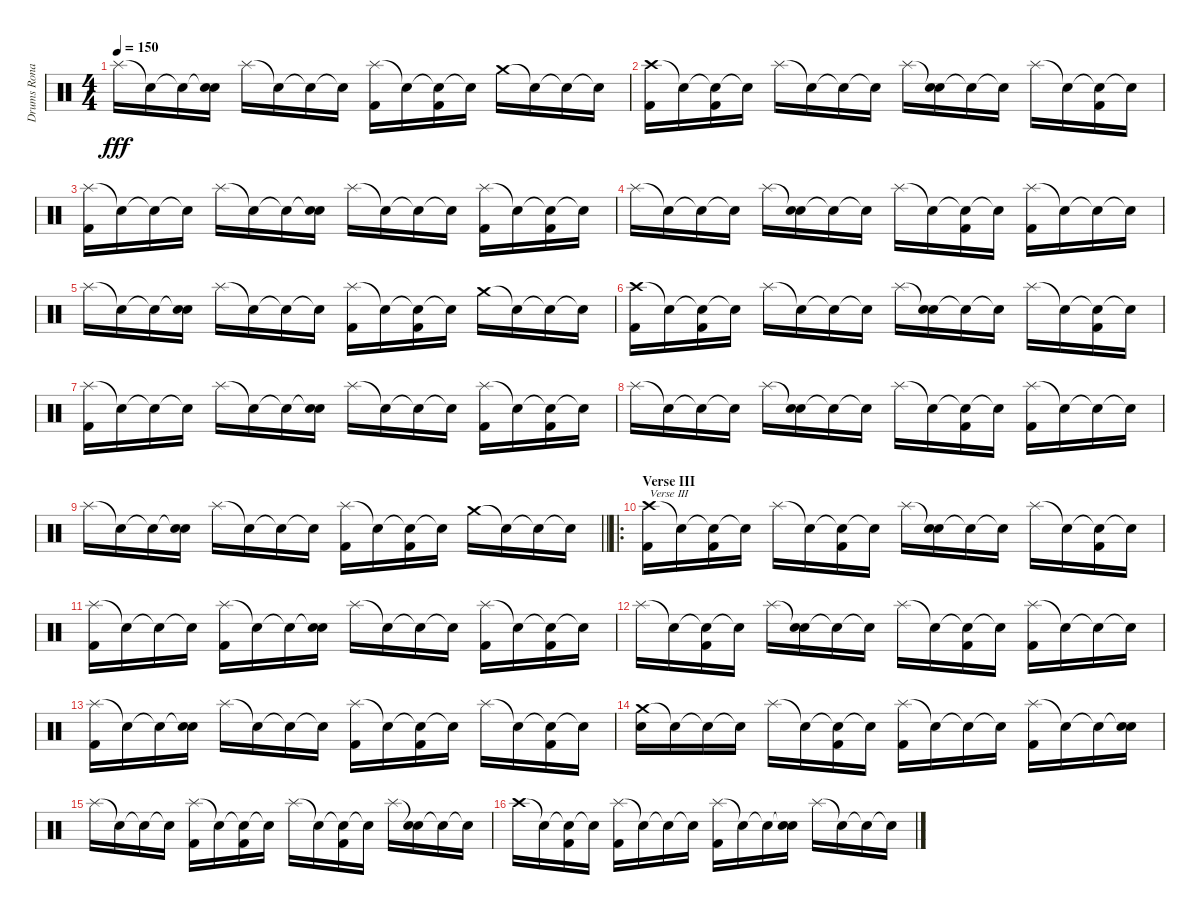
\track ("Drums Ronald Reagen FTW" "Drums Rona") {instrument percussion}
\staff {score}
\articulation defaults
\ts (4 4)
\tempo 150
\clef neutral
\ks c "Splash (hit)".16{dy fff} "Snare (hit)"{t}.16 "Snare (hit)"{t}.16
("Snare (hit)"{t} "Electric Snare (hit)").16 "Splash (hit)".16 "Snare (hit)"{t}.16 "Snare (hit)"{t}.16 "Snare (hit)"{t}.16 ("Splash (hit)" "Kick (hit) 2").16 "Snare (hit)"{t}.16 ("Snare (hit)"{t} "Kick (hit) 2").16 "Snare (hit)"{t}.16 "Crash medium (hit)".16 "Snare (hit)"{t}.16 "Snare (hit)"{t}.16 "Snare (hit)"{t}.16 |
("Crash high (hit)" "Kick (hit) 2").16 "Snare (hit)"{t}.16 ("Snare (hit)"{t} "Kick (hit) 2").16 "Snare (hit)"{t}.16 "Splash (hit)".16 "Snare (hit)"{t}.16 "Snare (hit)"{t}.16 "Snare (hit)"{t}.16 "Splash (hit)".16 ("Snare (hit)"{t} "Electric Snare (hit)").16 "Snare (hit)"{t}.16 "Snare (hit)"{t}.16 "Splash (hit)".16 "Snare (hit)"{t}.16 ("Snare (hit)"{t} "Kick (hit) 2").16 "Snare (hit)"{t}.16 |
("Splash (hit)" "Kick (hit) 2").16 "Snare (hit)"{t}.16 "Snare (hit)"{t}.16 "Snare (hit)"{t}.16 "Splash (hit)".16 "Snare (hit)"{t}.16 "Snare (hit)"{t}.16 ("Snare (hit)"{t} "Electric Snare (hit)").16 "Splash (hit)".16 "Snare (hit)"{t}.16 "Snare (hit)"{t}.16 "Snare (hit)"{t}.16 ("Splash (hit)" "Kick (hit) 2").16 "Snare (hit)"{t}.16 ("Snare (hit)"{t} "Kick (hit) 2").16 "Snare (hit)"{t}.16 |
"Splash (hit)".16 "Snare (hit)"{t}.16 "Snare (hit)"{t}.16 "Snare (hit)"{t}.16 "Splash (hit)".16 ("Snare (hit)"{t} "Electric Snare (hit)").16 "Snare (hit)"{t}.16 "Snare (hit)"{t}.16 "Splash (hit)".16 "Snare (hit)"{t}.16 ("Snare (hit)"{t} "Kick (hit) 2").16 "Snare (hit)"{t}.16 ("Splash (hit)" "Kick (hit) 2").16 "Snare (hit)"{t}.16 "Snare (hit)"{t}.16 "Snare (hit)"{t}.16 |
"Splash (hit)".16 "Snare (hit)"{t}.16 "Snare (hit)"{t}.16 ("Snare (hit)"{t} "Electric Snare (hit)").16 "Splash (hit)".16 "Snare (hit)"{t}.16 "Snare (hit)"{t}.16 "Snare (hit)"{t}.16 ("Splash (hit)" "Kick (hit) 2").16 "Snare (hit)"{t}.16 ("Snare (hit)"{t} "Kick (hit) 2").16 "Snare (hit)"{t}.16 "Crash medium (hit)".16 "Snare (hit)"{t}.16 "Snare (hit)"{t}.16 "Snare (hit)"{t}.16 |
("Crash high (hit)" "Kick (hit) 2").16 "Snare (hit)"{t}.16 ("Snare (hit)"{t} "Kick (hit) 2").16 "Snare (hit)"{t}.16 "Splash (hit)".16 "Snare (hit)"{t}.16 "Snare (hit)"{t}.16 "Snare (hit)"{t}.16 "Splash (hit)".16 ("Snare (hit)"{t} "Electric Snare (hit)").16 "Snare (hit)"{t}.16 "Snare (hit)"{t}.16 "Splash (hit)".16 "Snare (hit)"{t}.16 ("Snare (hit)"{t} "Kick (hit) 2").16 "Snare (hit)"{t}.16 |
("Splash (hit)" "Kick (hit) 2").16 "Snare (hit)"{t}.16 "Snare (hit)"{t}.16 "Snare (hit)"{t}.16 "Splash (hit)".16 "Snare (hit)"{t}.16 "Snare (hit)"{t}.16 ("Snare (hit)"{t} "Electric Snare (hit)").16 "Splash (hit)".16 "Snare (hit)"{t}.16 "Snare (hit)"{t}.16 "Snare (hit)"{t}.16 ("Splash (hit)" "Kick (hit) 2").16 "Snare (hit)"{t}.16 ("Snare (hit)"{t} "Kick (hit) 2").16 "Snare (hit)"{t}.16 |
"Splash (hit)".16 "Snare (hit)"{t}.16 "Snare (hit)"{t}.16 "Snare (hit)"{t}.16 "Splash (hit)".16 ("Snare (hit)"{t} "Electric Snare (hit)").16 "Snare (hit)"{t}.16 "Snare (hit)"{t}.16 "Splash (hit)".16 "Snare (hit)"{t}.16 ("Snare (hit)"{t} "Kick (hit) 2").16 "Snare (hit)"{t}.16 ("Splash (hit)" "Kick (hit) 2").16 "Snare (hit)"{t}.16 "Snare (hit)"{t}.16 "Snare (hit)"{t}.16 |
\barLineRight lightlight "Splash (hit)".16 "Snare (hit)"{t}.16 "Snare (hit)"{t}.16
("Snare (hit)"{t} "Electric Snare (hit)").16 "Splash (hit)".16 "Snare (hit)"{t}.16 "Snare (hit)"{t}.16 "Snare (hit)"{t}.16 ("Splash (hit)" "Kick (hit) 2").16 "Snare (hit)"{t}.16 ("Snare (hit)"{t} "Kick (hit) 2").16 "Snare (hit)"{t}.16 "Crash medium (hit)".16 "Snare (hit)"{t}.16 "Snare (hit)"{t}.16 "Snare (hit)"{t}.16 |
\ro
\section ("" "Verse III")
("Crash high (hit)" "Kick (hit) 2").16{txt "Verse III"} "Snare (hit)"{t}.16 ("Snare (hit)"{t} "Kick (hit) 2").16 "Snare (hit)"{t}.16 "Splash (hit)".16 "Snare (hit)"{t}.16 ("Snare (hit)"{t} "Kick (hit) 2").16 "Snare (hit)"{t}.16 "Splash (hit)".16 ("Snare (hit)"{t} "Electric Snare (hit)").16 "Snare (hit)"{t}.16 "Snare (hit)"{t}.16 "Splash (hit)".16 "Snare (hit)"{t}.16 ("Snare (hit)"{t} "Kick (hit) 2").16 "Snare (hit)"{t}.16 |
("Splash (hit)" "Kick (hit) 2").16 "Snare (hit)"{t}.16 "Snare (hit)"{t}.16 "Snare (hit)"{t}.16 ("Splash (hit)" "Kick (hit) 2").16 "Snare (hit)"{t}.16 "Snare (hit)"{t}.16 ("Snare (hit)"{t} "Electric Snare (hit)").16 "Splash (hit)".16 "Snare (hit)"{t}.16 "Snare (hit)"{t}.16 "Snare (hit)"{t}.16 ("Splash (hit)" "Kick (hit) 2").16 "Snare (hit)"{t}.16 ("Snare (hit)"{t} "Kick (hit) 2").16 "Snare (hit)"{t}.16 |
"Splash (hit)".16 "Snare (hit)"{t}.16 ("Snare (hit)"{t} "Kick (hit) 2").16 "Snare (hit)"{t}.16 "Splash (hit)".16 ("Snare (hit)"{t} "Electric Snare (hit)").16 "Snare (hit)"{t}.16 "Snare (hit)"{t}.16 "Splash (hit)".16 "Snare (hit)"{t}.16 ("Snare (hit)"{t} "Kick (hit) 2").16 "Snare (hit)"{t}.16 ("Splash (hit)" "Kick (hit) 2").16 "Snare (hit)"{t}.16 "Snare (hit)"{t}.16 "Snare (hit)"{t}.16 |
("Splash (hit)" "Kick (hit) 2").16 "Snare (hit)"{t}.16 "Snare (hit)"{t}.16 ("Snare (hit)"{t} "Electric Snare (hit)").16 "Splash (hit)".16 "Snare (hit)"{t}.16 "Snare (hit)"{t}.16 "Snare (hit)"{t}.16 ("Splash (hit)" "Kick (hit) 2").16 "Snare (hit)"{t}.16 ("Snare (hit)"{t} "Kick (hit) 2").16 "Snare (hit)"{t}.16 "Splash (hit)".16 "Snare (hit)"{t}.16 ("Snare (hit)"{t} "Kick (hit) 2").16 "Snare (hit)"{t}.16 |
("Crash medium (hit)" "Electric Snare (hit)").16 "Snare (hit)"{t}.16 "Snare (hit)"{t}.16 "Snare (hit)"{t}.16 "Splash (hit)".16 "Snare (hit)"{t}.16 ("Snare (hit)"{t} "Kick (hit) 2").16 "Snare (hit)"{t}.16 ("Splash (hit)" "Kick (hit) 2").16 "Snare (hit)"{t}.16 "Snare (hit)"{t}.16 "Snare (hit)"{t}.16 ("Splash (hit)" "Kick (hit) 2").16 "Snare (hit)"{t}.16 "Snare (hit)"{t}.16 ("Snare (hit)"{t} "Electric Snare (hit)").16 |
"Splash (hit)".16 "Snare (hit)"{t}.16 "Snare (hit)"{t}.16 "Snare (hit)"{t}.16 ("Splash (hit)" "Kick (hit) 2").16 "Snare (hit)"{t}.16 ("Snare (hit)"{t} "Kick (hit) 2").16 "Snare (hit)"{t}.16 "Splash (hit)".16 "Snare (hit)"{t}.16 ("Snare (hit)"{t} "Kick (hit) 2").16 "Snare (hit)"{t}.16 "Splash (hit)".16 ("Snare (hit)"{t} "Electric Snare (hit)").16 "Snare (hit)"{t}.16 "Snare (hit)"{t}.16 |
"Crash high (hit)".16 "Snare (hit)"{t}.16 ("Snare (hit)"{t} "Kick (hit) 2").16 "Snare (hit)"{t}.16 ("Splash (hit)" "Kick (hit) 2").16 "Snare (hit)"{t}.16 "Snare (hit)"{t}.16 "Snare (hit)"{t}.16 ("Splash (hit)" "Kick (hit) 2").16 "Snare (hit)"{t}.16 "Snare (hit)"{t}.16 ("Snare (hit)"{t} "Electric Snare (hit)").16 "Splash (hit)".16 "Snare (hit)"{t}.16 "Snare (hit)"{t}.16 "Snare (hit)"{t}.16
